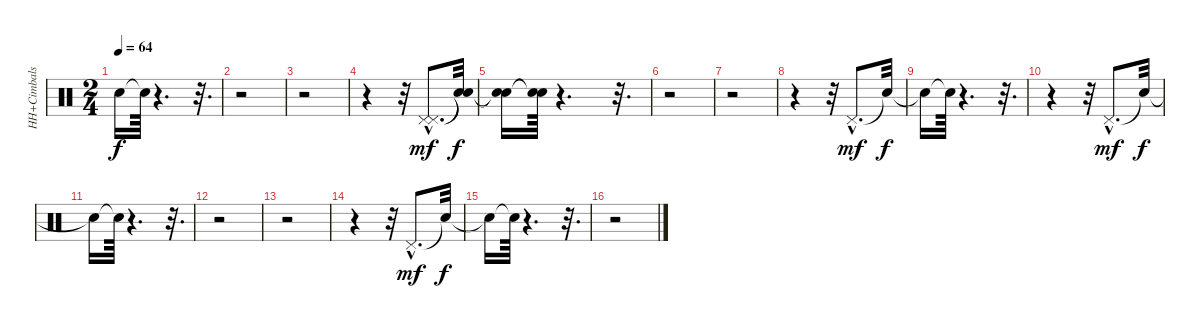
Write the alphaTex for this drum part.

\track ("HH+Cimbals" "HH+Cimbals") {instrument percussion}
\staff {score}
\articulation defaults
\ts (2 4)
\tempo 64
\clef neutral
\ks c "Snare (hit)"{t}.16{dy f} "Snare (hit)"{t}.64
r.4{d} r.32{d} |
r.2 |
r.2 |
r.4 r.32 ("Pedal Hi-Hat (hit)"{hac} "Pedal Hi-Hat (hit)"{hac}).8{d dy mf} ("Snare (hit)"{t} "Snare (hit)"{t}).32{dy f} |
("Snare (hit)"{t} "Snare (hit)"{t}).16 ("Snare (hit)"{t} "Snare (hit)"{t}).64 r.4{d} r.32{d} |
r.2 |
r.2 |
r.4 r.32 "Pedal Hi-Hat (hit)"{hac}.8{d dy mf} "Snare (hit)"{t}.32{dy f} |
"Snare (hit)"{t}.16 "Snare (hit)"{t}.64 r.4{d} r.32{d} |
r.4 r.32 "Pedal Hi-Hat (hit)"{hac}.8{d dy mf} "Snare (hit)"{t}.32{dy f} |
"Snare (hit)"{t}.16 "Snare (hit)"{t}.64 r.4{d} r.32{d} |
r.2 |
r.2 |
r.4 r.32 "Pedal Hi-Hat (hit)"{hac}.8{d dy mf} "Snare (hit)"{t}.32{dy f} |
"Snare (hit)"{t}.16 "Snare (hit)"{t}.64 r.4{d} r.32{d} |
r.2
